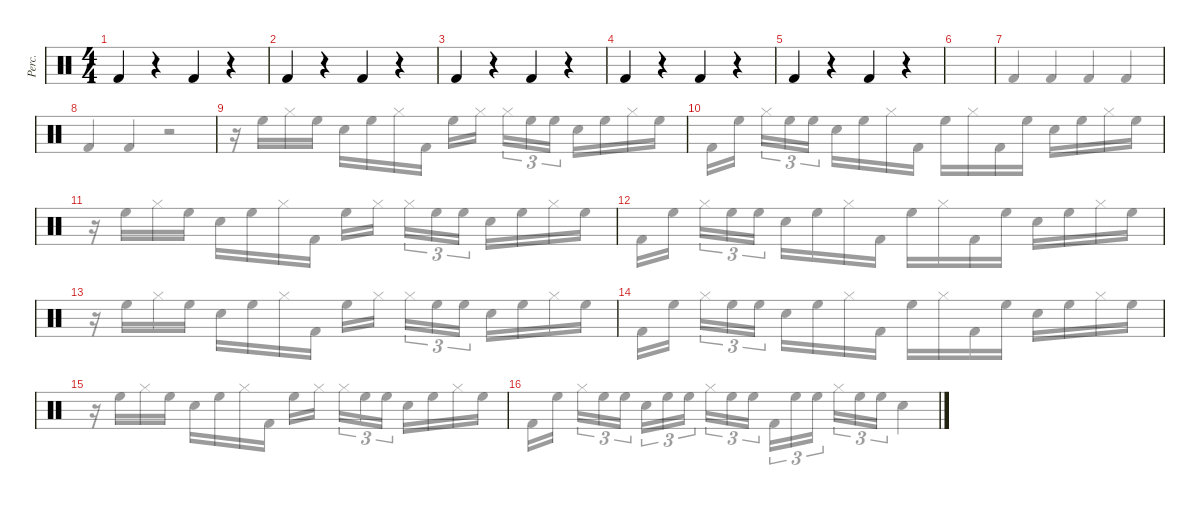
\defaultSystemsLayout 4
\hideDynamics
\bracketExtendMode groupsimilarinstruments
\otherSystemsTrackNameOrientation horizontal
\track ("Percussions 1" "Perc.") {instrument percussion}
\staff {score}
\articulation defaults
\voice
\ts (4 4)
\tempo (120 hide)
\clef neutral
\ks c "Kick (hit) 2".4{dy mf beam Up}
r.4{beam Up} "Kick (hit) 2".4{beam Up} r.4{beam Up} |
"Kick (hit) 2".4{beam Up} r.4{beam Up} "Kick (hit) 2".4{beam Up} r.4{beam Up} |
"Kick (hit) 2".4{beam Up} r.4{beam Up} "Kick (hit) 2".4{beam Up} r.4{beam Up} |
"Kick (hit) 2".4{beam Up} r.4{beam Up} "Kick (hit) 2".4{beam Up} r.4{beam Up} |
"Kick (hit) 2".4{beam Up} r.4{beam Up} "Kick (hit) 2".4{beam Up} r.4{beam Up} |
|
|
|
|
|
|
|
|
|
|
\voice
\clef neutral
\ottava regular
\simile none
\ks c
|
|
|
|
|
|
"Kick (hit) 2".4{beam Up} "Kick (hit) 2".4{beam Up} "Kick (hit) 2".4{beam Up} "Kick (hit) 2".4{beam Up} |
"Kick (hit) 2".4{beam Up} "Kick (hit) 2".4{beam Up} r.2{beam Up} |
|
|
|
|
|
|
|
\voice
\clef neutral
\ottava regular
\simile none
\ks c
|
|
|
|
|
|
|
|
r.16{beam Down} "High Floor Tom (hit)".16{beam Down} "Hi-Hat (closed)".16{beam Down} "High Floor Tom (hit)".16{beam Down} "Snare (hit) 2".16{beam Down} "High Floor Tom (hit)".16{beam Down} "Hi-Hat (closed)".16{beam Down} "Kick (hit) 2".16{beam Down} "High Floor Tom (hit)".16{beam Down} "Hi-Hat (closed)".16{beam Down} "Hi-Hat (closed)".16{tu (3 2) beam Down} "High Floor Tom (hit)".16{tu (3 2) beam Down} "High Floor Tom (hit)".16{tu (3 2) beam Down} "Snare (hit) 2".16{beam Down} "High Floor Tom (hit)".16{beam Down} "Hi-Hat (closed)".16{beam Down} "High Floor Tom (hit)".16{beam Down} |
"Kick (hit) 2".16{beam Down} "High Floor Tom (hit)".16{beam Down} "Hi-Hat (closed)".16{tu (3 2) beam Down} "High Floor Tom (hit)".16{tu (3 2) beam Down} "High Floor Tom (hit)".16{tu (3 2) beam Down} "Snare (hit) 2".16{beam Down} "High Floor Tom (hit)".16{beam Down} "Hi-Hat (closed)".16{beam Down} "Kick (hit) 2".16{beam Down} "High Floor Tom (hit)".16{beam Down} "Hi-Hat (closed)".16{beam Down} "Kick (hit) 2".16{beam Down} "High Floor Tom (hit)".16{beam Down} "Snare (hit) 2".16{beam Down} "High Floor Tom (hit)".16{beam Down} "Hi-Hat (closed)".16{beam Down} "High Floor Tom (hit)".16{beam Down} |
r.16{beam Down} "High Floor Tom (hit)".16{beam Down} "Hi-Hat (closed)".16{beam Down} "High Floor Tom (hit)".16{beam Down} "Snare (hit) 2".16{beam Down} "High Floor Tom (hit)".16{beam Down} "Hi-Hat (closed)".16{beam Down} "Kick (hit) 2".16{beam Down} "High Floor Tom (hit)".16{beam Down} "Hi-Hat (closed)".16{beam Down} "Hi-Hat (closed)".16{tu (3 2) beam Down} "High Floor Tom (hit)".16{tu (3 2) beam Down} "High Floor Tom (hit)".16{tu (3 2) beam Down} "Snare (hit) 2".16{beam Down} "High Floor Tom (hit)".16{beam Down} "Hi-Hat (closed)".16{beam Down} "High Floor Tom (hit)".16{beam Down} |
"Kick (hit) 2".16{beam Down} "High Floor Tom (hit)".16{beam Down} "Hi-Hat (closed)".16{tu (3 2) beam Down} "High Floor Tom (hit)".16{tu (3 2) beam Down} "High Floor Tom (hit)".16{tu (3 2) beam Down} "Snare (hit) 2".16{beam Down} "High Floor Tom (hit)".16{beam Down} "Hi-Hat (closed)".16{beam Down} "Kick (hit) 2".16{beam Down} "High Floor Tom (hit)".16{beam Down} "Hi-Hat (closed)".16{beam Down} "Kick (hit) 2".16{beam Down} "High Floor Tom (hit)".16{beam Down} "Snare (hit) 2".16{beam Down} "High Floor Tom (hit)".16{beam Down} "Hi-Hat (closed)".16{beam Down} "High Floor Tom (hit)".16{beam Down} |
r.16{beam Down} "High Floor Tom (hit)".16{beam Down} "Hi-Hat (closed)".16{beam Down} "High Floor Tom (hit)".16{beam Down} "Snare (hit) 2".16{beam Down} "High Floor Tom (hit)".16{beam Down} "Hi-Hat (closed)".16{beam Down} "Kick (hit) 2".16{beam Down} "High Floor Tom (hit)".16{beam Down} "Hi-Hat (closed)".16{beam Down} "Hi-Hat (closed)".16{tu (3 2) beam Down} "High Floor Tom (hit)".16{tu (3 2) beam Down} "High Floor Tom (hit)".16{tu (3 2) beam Down} "Snare (hit) 2".16{beam Down} "High Floor Tom (hit)".16{beam Down} "Hi-Hat (closed)".16{beam Down} "High Floor Tom (hit)".16{beam Down} |
"Kick (hit) 2".16{beam Down} "High Floor Tom (hit)".16{beam Down} "Hi-Hat (closed)".16{tu (3 2) beam Down} "High Floor Tom (hit)".16{tu (3 2) beam Down} "High Floor Tom (hit)".16{tu (3 2) beam Down} "Snare (hit) 2".16{beam Down} "High Floor Tom (hit)".16{beam Down} "Hi-Hat (closed)".16{beam Down} "Kick (hit) 2".16{beam Down} "High Floor Tom (hit)".16{beam Down} "Hi-Hat (closed)".16{beam Down} "Kick (hit) 2".16{beam Down} "High Floor Tom (hit)".16{beam Down} "Snare (hit) 2".16{beam Down} "High Floor Tom (hit)".16{beam Down} "Hi-Hat (closed)".16{beam Down} "High Floor Tom (hit)".16{beam Down} |
r.16{beam Down} "High Floor Tom (hit)".16{beam Down} "Hi-Hat (closed)".16{beam Down} "High Floor Tom (hit)".16{beam Down} "Snare (hit) 2".16{beam Down} "High Floor Tom (hit)".16{beam Down} "Hi-Hat (closed)".16{beam Down} "Kick (hit) 2".16{beam Down} "High Floor Tom (hit)".16{beam Down} "Hi-Hat (closed)".16{beam Down} "Hi-Hat (closed)".16{tu (3 2) beam Down} "High Floor Tom (hit)".16{tu (3 2) beam Down} "High Floor Tom (hit)".16{tu (3 2) beam Down} "Snare (hit) 2".16{beam Down} "High Floor Tom (hit)".16{beam Down} "Hi-Hat (closed)".16{beam Down} "High Floor Tom (hit)".16{beam Down} |
"Kick (hit) 2".16{beam Down} "High Floor Tom (hit)".16{beam Down} "Hi-Hat (closed)".16{tu (3 2) beam Down} "High Floor Tom (hit)".16{tu (3 2) beam Down} "High Floor Tom (hit)".16{tu (3 2) beam Down} "Snare (hit) 2".16{tu (3 2) beam Down} "High Floor Tom (hit)".16{tu (3 2) beam Down} "High Floor Tom (hit)".16{tu (3 2) beam Down} "Hi-Hat (closed)".16{tu (3 2) beam Down} "High Floor Tom (hit)".16{tu (3 2) beam Down} "High Floor Tom (hit)".16{tu (3 2) beam Down} "Kick (hit) 2".16{tu (3 2) beam Down} "High Floor Tom (hit)".16{tu (3 2) beam Down} "High Floor Tom (hit)".16{tu (3 2) beam Down} "Hi-Hat (closed)".16{tu (3 2) beam Down} "High Floor Tom (hit)".16{tu (3 2) beam Down} "High Floor Tom (hit)".16{tu (3 2) beam Down} "Snare (hit) 2".4{beam Down}
